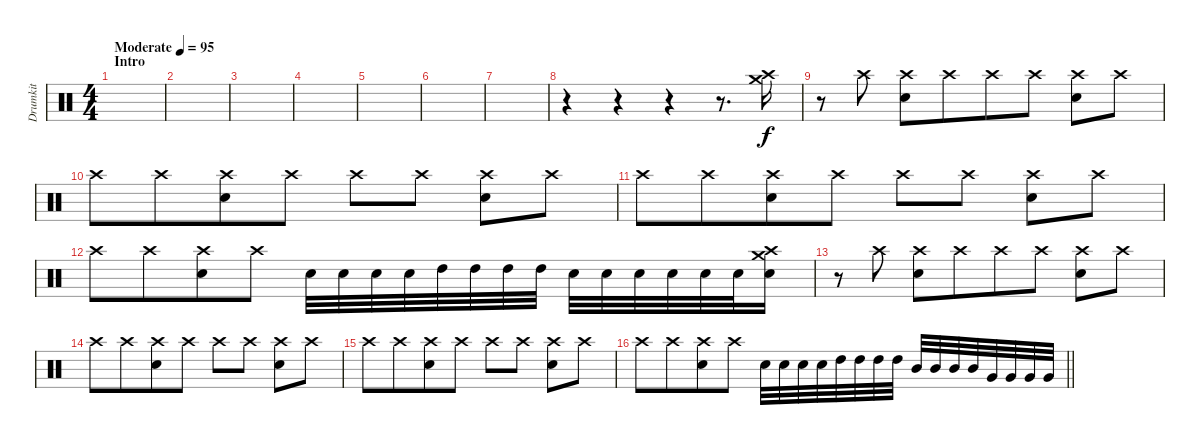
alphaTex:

\track ("Drumkit" "Drumkit") {instrument percussion}
\staff {score}
\articulation defaults
\ts (4 4)
\section ("" "Intro")
\tempo (95 "Moderate")
\clef neutral
\ks c
|
|
|
|
|
|
|
r.4 r.4 r.4 r.8{d} ("Crash medium (hit)" "Crash high (hit)").16 |
r.8 "Crash high (hit)".8 ("Crash high (hit)" "Electric Snare (hit)").8 "Crash high (hit)".8{beam merge} "Crash high (hit)".8 "Crash high (hit)".8 ("Crash high (hit)" "Electric Snare (hit)").8 "Crash high (hit)".8 |
"Crash high (hit)".8{beam merge} "Crash high (hit)".8{beam merge} ("Crash high (hit)" "Electric Snare (hit)").8 "Crash high (hit)".8 "Crash high (hit)".8{beam merge} "Crash high (hit)".8 ("Crash high (hit)" "Electric Snare (hit)").8 "Crash high (hit)".8 |
"Crash high (hit)".8{beam merge} "Crash high (hit)".8{beam merge} ("Crash high (hit)" "Electric Snare (hit)").8 "Crash high (hit)".8 "Crash high (hit)".8{beam merge} "Crash high (hit)".8 ("Crash high (hit)" "Electric Snare (hit)").8 "Crash high (hit)".8 |
"Crash high (hit)".8{beam merge} "Crash high (hit)".8{beam merge} ("Crash high (hit)" "Electric Snare (hit)").8 "Crash high (hit)".8 "Electric Snare (hit)".32{beam merge} "Electric Snare (hit)".32 "Electric Snare (hit)".32 "Electric Snare (hit)".32 "High Tom (hit)".32 "High Tom (hit)".32 "High Tom (hit)".32 "High Tom (hit)".32 "Electric Snare (hit)".32 "Electric Snare (hit)".32 "Electric Snare (hit)".32 "Electric Snare (hit)".32 "Electric Snare (hit)".32 "Electric Snare (hit)".32 ("Crash medium (hit)" "Crash high (hit)" "Electric Snare (hit)").16 |
r.8 "Crash high (hit)".8 ("Crash high (hit)" "Electric Snare (hit)").8 "Crash high (hit)".8{beam merge} "Crash high (hit)".8 "Crash high (hit)".8 ("Crash high (hit)" "Electric Snare (hit)").8 "Crash high (hit)".8 |
"Crash high (hit)".8{beam merge} "Crash high (hit)".8{beam merge} ("Crash high (hit)" "Electric Snare (hit)").8 "Crash high (hit)".8 "Crash high (hit)".8{beam merge} "Crash high (hit)".8 ("Crash high (hit)" "Electric Snare (hit)").8 "Crash high (hit)".8 |
"Crash high (hit)".8{beam merge} "Crash high (hit)".8{beam merge} ("Crash high (hit)" "Electric Snare (hit)").8 "Crash high (hit)".8 "Crash high (hit)".8{beam merge} "Crash high (hit)".8 ("Crash high (hit)" "Electric Snare (hit)").8 "Crash high (hit)".8 |
\barLineRight lightlight "Crash high (hit)".8{beam merge} "Crash high (hit)".8{beam merge}
("Crash high (hit)" "Electric Snare (hit)").8 "Crash high (hit)".8 "Electric Snare (hit)".32{beam merge} "Electric Snare (hit)".32 "Electric Snare (hit)".32 "Electric Snare (hit)".32 "High Tom (hit)".32 "High Tom (hit)".32 "High Tom (hit)".32 "High Tom (hit)".32 "Mid Tom (hit)".32 "Mid Tom (hit)".32 "Mid Tom (hit)".32 "Mid Tom (hit)".32 "Very Low Tom (hit)".32 "Very Low Tom (hit)".32 "Very Low Tom (hit)".32 "Very Low Tom (hit)".32
